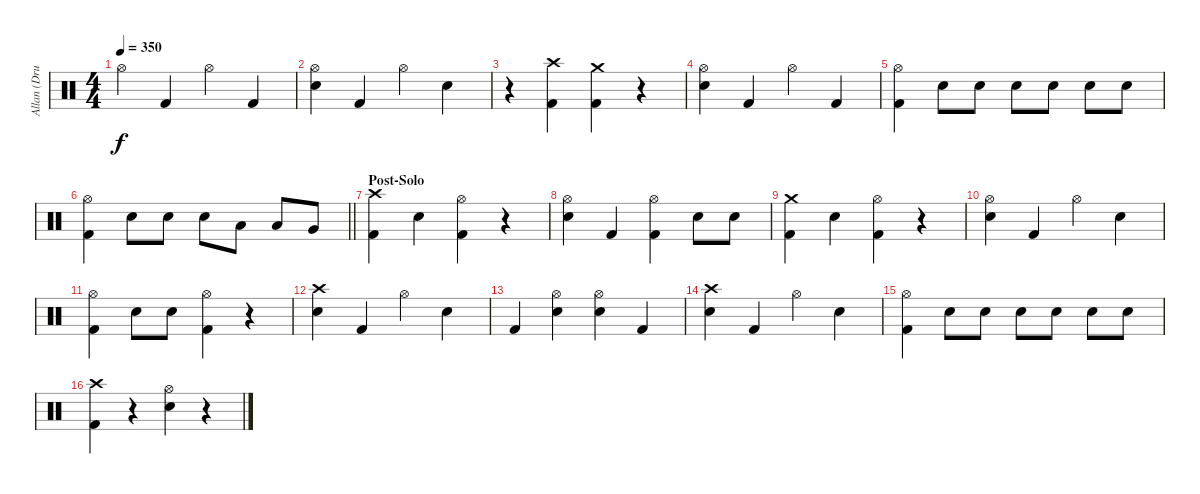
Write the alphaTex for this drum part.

\track ("Allan (Drums)" "Allan (Dru") {solo instrument percussion}
\staff {score}
\articulation defaults
\ts (4 4)
\tempo 350
\clef neutral
\ks c "Hi-Hat (open)".4{dy f} "Kick (hit) 2".4 "Hi-Hat (open)".4 "Kick (hit) 2".4
|
("Hi-Hat (open)" "Snare (hit) 2").4 "Kick (hit) 2".4 "Hi-Hat (open)".4 "Snare (hit) 2".4 |
r.4 ("Crash high (hit)" "Kick (hit) 2").4 ("Crash medium (hit)" "Kick (hit) 2").4 r.4 |
("Hi-Hat (open)" "Snare (hit) 2").4 "Kick (hit) 2".4 "Hi-Hat (open)".4 "Kick (hit) 2".4 |
("Hi-Hat (open)" "Kick (hit) 2").4 "Snare (hit) 2".8 "Snare (hit) 2".8 "Snare (hit) 2".8 "Snare (hit) 2".8 "Snare (hit) 2".8 "Snare (hit) 2".8 |
\barLineRight lightlight
("Hi-Hat (open)" "Kick (hit) 2").4 "Snare (hit) 2".8 "Snare (hit) 2".8 "Snare (hit) 2".8 "Low Tom (hit)".8 "Low Tom (hit)".8 "Very Low Tom (hit)".8 |
\section ("" "Post-Solo")
("Crash high (hit)" "Kick (hit) 2").4 "Snare (hit) 2".4 ("Hi-Hat (open)" "Kick (hit) 2").4 r.4 |
("Hi-Hat (open)" "Snare (hit) 2").4 "Kick (hit) 2".4 ("Hi-Hat (open)" "Kick (hit) 2").4 "Snare (hit) 2".8 "Snare (hit) 2".8 |
("Crash medium (hit)" "Kick (hit) 2").4 "Snare (hit) 2".4 ("Hi-Hat (open)" "Kick (hit) 2").4 r.4 |
("Hi-Hat (open)" "Snare (hit) 2").4 "Kick (hit) 2".4 "Hi-Hat (open)".4 "Snare (hit) 2".4 |
("Hi-Hat (open)" "Kick (hit) 2").4 "Snare (hit) 2".8 "Snare (hit) 2".8 ("Hi-Hat (open)" "Kick (hit) 2").4 r.4 |
("Crash high (hit)" "Snare (hit) 2").4 "Kick (hit) 2".4 "Hi-Hat (open)".4 "Snare (hit) 2".4 |
"Kick (hit) 2".4 ("Hi-Hat (open)" "Snare (hit) 2").4 ("Hi-Hat (open)" "Snare (hit) 2").4 "Kick (hit) 2".4 |
("Crash high (hit)" "Snare (hit) 2").4 "Kick (hit) 2".4 "Hi-Hat (open)".4 "Snare (hit) 2".4 |
("Hi-Hat (open)" "Kick (hit) 2").4 "Snare (hit) 2".8 "Snare (hit) 2".8 "Snare (hit) 2".8 "Snare (hit) 2".8 "Snare (hit) 2".8 "Snare (hit) 2".8 |
("Crash high (hit)" "Kick (hit) 2").4 r.4 ("Hi-Hat (open)" "Snare (hit) 2").4 r.4
